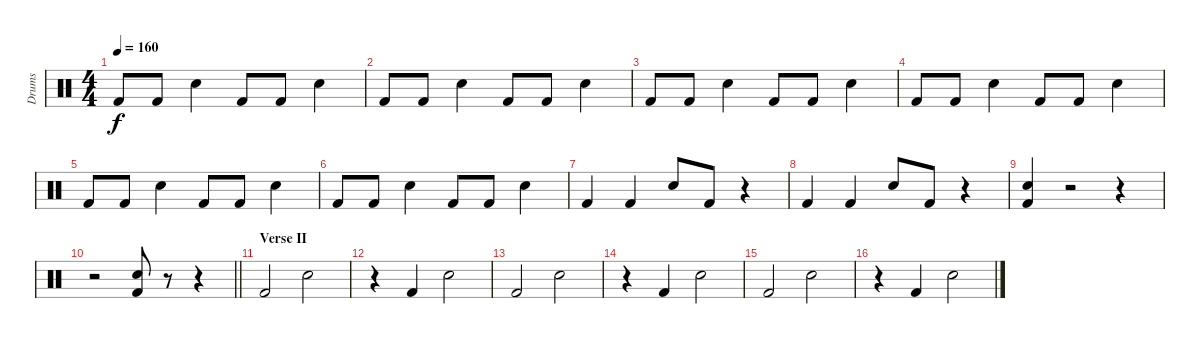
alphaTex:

\track ("Drums" "Drums") {instrument percussion}
\staff {score}
\articulation defaults
\ts (4 4)
\tempo 160
\clef neutral
\ks c "Kick (hit) 2".8{dy f} "Kick (hit) 2".8 "Electric Snare (hit)".4 "Kick (hit) 2".8 "Kick (hit) 2".8 "Electric Snare (hit)".4
|
"Kick (hit) 2".8 "Kick (hit) 2".8 "Electric Snare (hit)".4 "Kick (hit) 2".8 "Kick (hit) 2".8 "Electric Snare (hit)".4 |
"Kick (hit) 2".8 "Kick (hit) 2".8 "Electric Snare (hit)".4 "Kick (hit) 2".8 "Kick (hit) 2".8 "Electric Snare (hit)".4 |
"Kick (hit) 2".8 "Kick (hit) 2".8 "Electric Snare (hit)".4 "Kick (hit) 2".8 "Kick (hit) 2".8 "Electric Snare (hit)".4 |
"Kick (hit) 2".8 "Kick (hit) 2".8 "Electric Snare (hit)".4 "Kick (hit) 2".8 "Kick (hit) 2".8 "Electric Snare (hit)".4 |
"Kick (hit) 2".8 "Kick (hit) 2".8 "Electric Snare (hit)".4 "Kick (hit) 2".8 "Kick (hit) 2".8 "Electric Snare (hit)".4 |
"Kick (hit) 2".4 "Kick (hit) 2".4 "Electric Snare (hit)".8 "Kick (hit) 2".8 r.4 |
"Kick (hit) 2".4 "Kick (hit) 2".4 "Electric Snare (hit)".8 "Kick (hit) 2".8 r.4 |
("Kick (hit) 2" "Electric Snare (hit)").4 r.2 r.4 |
\barLineRight lightlight
r.2 ("Kick (hit) 2" "Electric Snare (hit)").8 r.8 r.4 |
\section ("" "Verse II")
"Kick (hit) 2".2 "Electric Snare (hit)".2 |
r.4 "Kick (hit) 2".4 "Electric Snare (hit)".2 |
"Kick (hit) 2".2 "Electric Snare (hit)".2 |
r.4 "Kick (hit) 2".4 "Electric Snare (hit)".2 |
"Kick (hit) 2".2 "Electric Snare (hit)".2 |
r.4 "Kick (hit) 2".4 "Electric Snare (hit)".2
